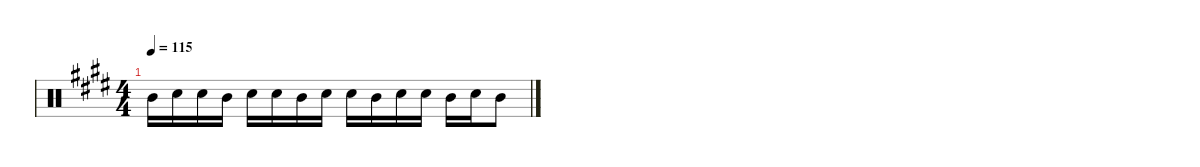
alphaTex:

\defaultSystemsLayout 4
\hideDynamics
\bracketExtendMode nobrackets
\singleTrackTrackNamePolicy hidden
\multiTrackTrackNamePolicy hidden
\otherSystemsTrackNameOrientation horizontal
\track ("Drums" "drm.") {defaultSystemsLayout 4 instrument percussion}
\staff {score}
\articulation defaults
\ts (4 4)
\tempo 115
\clef neutral
\ks c#minor "Mid Tom (hit)"{acc forcenatural}.16{dy ff beam Down} "Snare (hit) 2"{acc forcenatural}.16{dy f beam Down} "Snare (hit) 2"{acc forcenatural}.16{beam Down} "Mid Tom (hit)"{acc forcenatural}.16{dy ff beam Down} "Snare (hit) 2"{acc forcenatural}.16{dy f beam Down} "Snare (hit) 2"{acc forcenatural}.16{beam Down} "Mid Tom (hit)"{acc forcenatural}.16{dy ff beam Down} "Snare (hit) 2"{acc forcenatural}.16{dy f beam Down} "Snare (hit) 2"{acc forcenatural}.16{beam Down} "Mid Tom (hit)"{acc forcenatural}.16{dy ff beam Down} "Snare (hit) 2"{acc forcenatural}.16{beam Down} "Snare (hit) 2"{acc forcenatural}.16{dy f beam Down} "Mid Tom (hit)"{acc forcenatural}.16{dy ff beam Down} "Snare (hit) 2"{acc forcenatural}.16{beam Down} "Mid Tom (hit)"{acc forcenatural}.8{beam Down}
